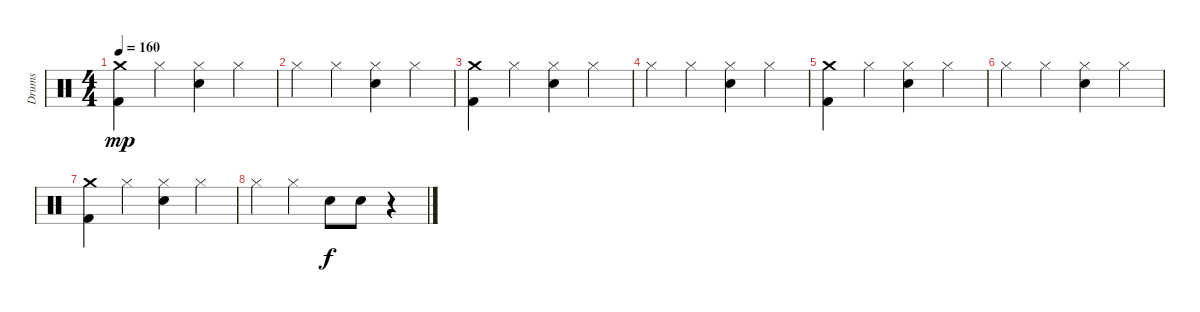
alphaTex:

\track ("Drums" "Drums") {instrument percussion}
\staff {score}
\articulation defaults
\ts (4 4)
\tempo 160
\clef neutral
\ks c
("Kick (hit) 2" "Crash medium (hit)").4{dy mp} "Hi-Hat (closed)".4 ("Snare (hit) 2" "Hi-Hat (closed)").4 "Hi-Hat (closed)".4 |
"Hi-Hat (closed)".4 "Hi-Hat (closed)".4 ("Snare (hit) 2" "Hi-Hat (closed)").4 "Hi-Hat (closed)".4 |
("Kick (hit) 2" "Crash medium (hit)").4 "Hi-Hat (closed)".4 ("Snare (hit) 2" "Hi-Hat (closed)").4 "Hi-Hat (closed)".4 |
"Hi-Hat (closed)".4 "Hi-Hat (closed)".4 ("Snare (hit) 2" "Hi-Hat (closed)").4 "Hi-Hat (closed)".4 |
("Kick (hit) 2" "Crash medium (hit)").4 "Hi-Hat (closed)".4 ("Snare (hit) 2" "Hi-Hat (closed)").4 "Hi-Hat (closed)".4 |
"Hi-Hat (closed)".4 "Hi-Hat (closed)".4 ("Snare (hit) 2" "Hi-Hat (closed)").4 "Hi-Hat (closed)".4 |
("Kick (hit) 2" "Crash medium (hit)").4 "Hi-Hat (closed)".4 ("Snare (hit) 2" "Hi-Hat (closed)").4 "Hi-Hat (closed)".4 |
"Hi-Hat (closed)".4 "Hi-Hat (closed)".4 "Snare (hit) 2".8{dy f} "Snare (hit) 2".8 r.4
